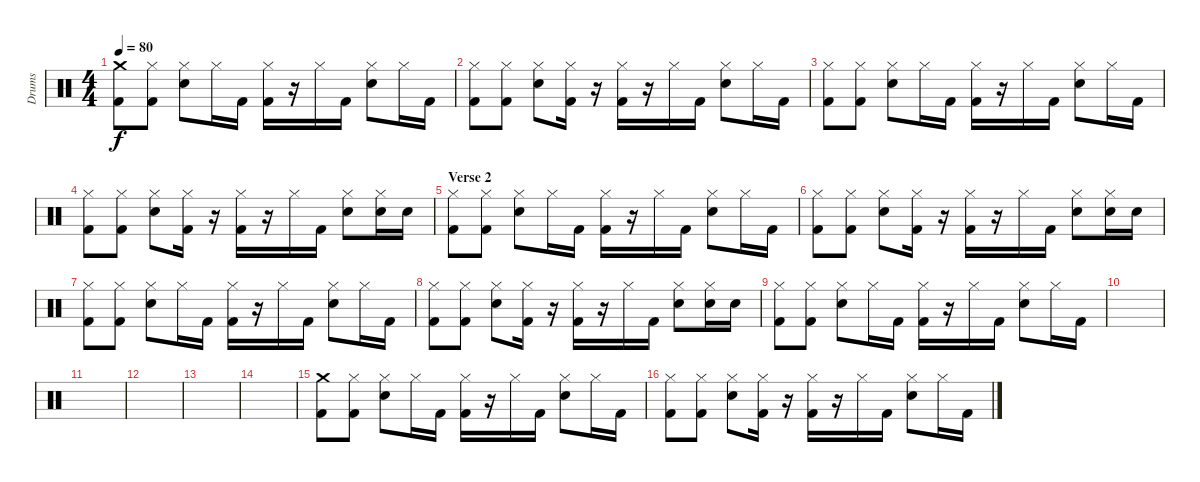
\track ("Drums" "Drums") {instrument percussion}
\staff {score}
\articulation defaults
\ts (4 4)
\tempo 80
\clef neutral
\ks c
("Crash medium (hit)" "Kick (hit) 2").8{dy f} ("Hi-Hat (closed)" "Kick (hit) 2").8 ("Hi-Hat (closed)" "Electric Snare (hit)").8 "Hi-Hat (closed)".16 "Kick (hit) 2".16 ("Hi-Hat (closed)" "Kick (hit) 2").16 r.16 "Hi-Hat (closed)".16 "Kick (hit) 2".16 ("Hi-Hat (closed)" "Electric Snare (hit)").8 "Hi-Hat (closed)".16 "Kick (hit) 2".16 |
("Hi-Hat (closed)" "Kick (hit) 2").8 ("Hi-Hat (closed)" "Kick (hit) 2").8 ("Hi-Hat (closed)" "Electric Snare (hit)").8 ("Hi-Hat (closed)" "Kick (hit) 2").16 r.16 ("Hi-Hat (closed)" "Kick (hit) 2").16 r.16 "Hi-Hat (closed)".16 "Kick (hit) 2".16 ("Hi-Hat (closed)" "Electric Snare (hit)").8 "Hi-Hat (closed)".16 "Kick (hit) 2".16 |
("Hi-Hat (closed)" "Kick (hit) 2").8 ("Hi-Hat (closed)" "Kick (hit) 2").8 ("Hi-Hat (closed)" "Electric Snare (hit)").8 "Hi-Hat (closed)".16 "Kick (hit) 2".16 ("Hi-Hat (closed)" "Kick (hit) 2").16 r.16 "Hi-Hat (closed)".16 "Kick (hit) 2".16 ("Hi-Hat (closed)" "Electric Snare (hit)").8 "Hi-Hat (closed)".16 "Kick (hit) 2".16 |
("Hi-Hat (closed)" "Kick (hit) 2").8 ("Hi-Hat (closed)" "Kick (hit) 2").8 ("Hi-Hat (closed)" "Electric Snare (hit)").8 ("Hi-Hat (closed)" "Kick (hit) 2").16 r.16 ("Hi-Hat (closed)" "Kick (hit) 2").16 r.16 "Hi-Hat (closed)".16 "Kick (hit) 2".16 ("Hi-Hat (closed)" "Electric Snare (hit)").8 ("Hi-Hat (closed)" "Electric Snare (hit)").16 "Electric Snare (hit)".16 |
\section ("" "Verse 2")
("Hi-Hat (closed)" "Kick (hit) 2").8 ("Hi-Hat (closed)" "Kick (hit) 2").8 ("Hi-Hat (closed)" "Electric Snare (hit)").8 "Hi-Hat (closed)".16 "Kick (hit) 2".16 ("Hi-Hat (closed)" "Kick (hit) 2").16 r.16 "Hi-Hat (closed)".16 "Kick (hit) 2".16 ("Hi-Hat (closed)" "Electric Snare (hit)").8 "Hi-Hat (closed)".16 "Kick (hit) 2".16 |
("Hi-Hat (closed)" "Kick (hit) 2").8 ("Hi-Hat (closed)" "Kick (hit) 2").8 ("Hi-Hat (closed)" "Electric Snare (hit)").8 ("Hi-Hat (closed)" "Kick (hit) 2").16 r.16 ("Hi-Hat (closed)" "Kick (hit) 2").16 r.16 "Hi-Hat (closed)".16 "Kick (hit) 2".16 ("Hi-Hat (closed)" "Electric Snare (hit)").8 ("Hi-Hat (closed)" "Electric Snare (hit)").16 "Electric Snare (hit)".16 |
("Hi-Hat (closed)" "Kick (hit) 2").8 ("Hi-Hat (closed)" "Kick (hit) 2").8 ("Hi-Hat (closed)" "Electric Snare (hit)").8 "Hi-Hat (closed)".16 "Kick (hit) 2".16 ("Hi-Hat (closed)" "Kick (hit) 2").16 r.16 "Hi-Hat (closed)".16 "Kick (hit) 2".16 ("Hi-Hat (closed)" "Electric Snare (hit)").8 "Hi-Hat (closed)".16 "Kick (hit) 2".16 |
("Hi-Hat (closed)" "Kick (hit) 2").8 ("Hi-Hat (closed)" "Kick (hit) 2").8 ("Hi-Hat (closed)" "Electric Snare (hit)").8 ("Hi-Hat (closed)" "Kick (hit) 2").16 r.16 ("Hi-Hat (closed)" "Kick (hit) 2").16 r.16 "Hi-Hat (closed)".16 "Kick (hit) 2".16 ("Hi-Hat (closed)" "Electric Snare (hit)").8 ("Hi-Hat (closed)" "Electric Snare (hit)").16 "Electric Snare (hit)".16 |
("Hi-Hat (closed)" "Kick (hit) 2").8 ("Hi-Hat (closed)" "Kick (hit) 2").8 ("Hi-Hat (closed)" "Electric Snare (hit)").8 "Hi-Hat (closed)".16 "Kick (hit) 2".16 ("Hi-Hat (closed)" "Kick (hit) 2").16 r.16 "Hi-Hat (closed)".16 "Kick (hit) 2".16 ("Hi-Hat (closed)" "Electric Snare (hit)").8 "Hi-Hat (closed)".16 "Kick (hit) 2".16 |
|
|
|
|
|
("Crash medium (hit)" "Kick (hit) 2").8 ("Hi-Hat (closed)" "Kick (hit) 2").8 ("Hi-Hat (closed)" "Electric Snare (hit)").8 "Hi-Hat (closed)".16 "Kick (hit) 2".16 ("Hi-Hat (closed)" "Kick (hit) 2").16 r.16 "Hi-Hat (closed)".16 "Kick (hit) 2".16 ("Hi-Hat (closed)" "Electric Snare (hit)").8 "Hi-Hat (closed)".16 "Kick (hit) 2".16 |
("Hi-Hat (closed)" "Kick (hit) 2").8 ("Hi-Hat (closed)" "Kick (hit) 2").8 ("Hi-Hat (closed)" "Electric Snare (hit)").8 ("Hi-Hat (closed)" "Kick (hit) 2").16 r.16 ("Hi-Hat (closed)" "Kick (hit) 2").16 r.16 "Hi-Hat (closed)".16 "Kick (hit) 2".16 ("Hi-Hat (closed)" "Electric Snare (hit)").8 "Hi-Hat (closed)".16 "Kick (hit) 2".16
